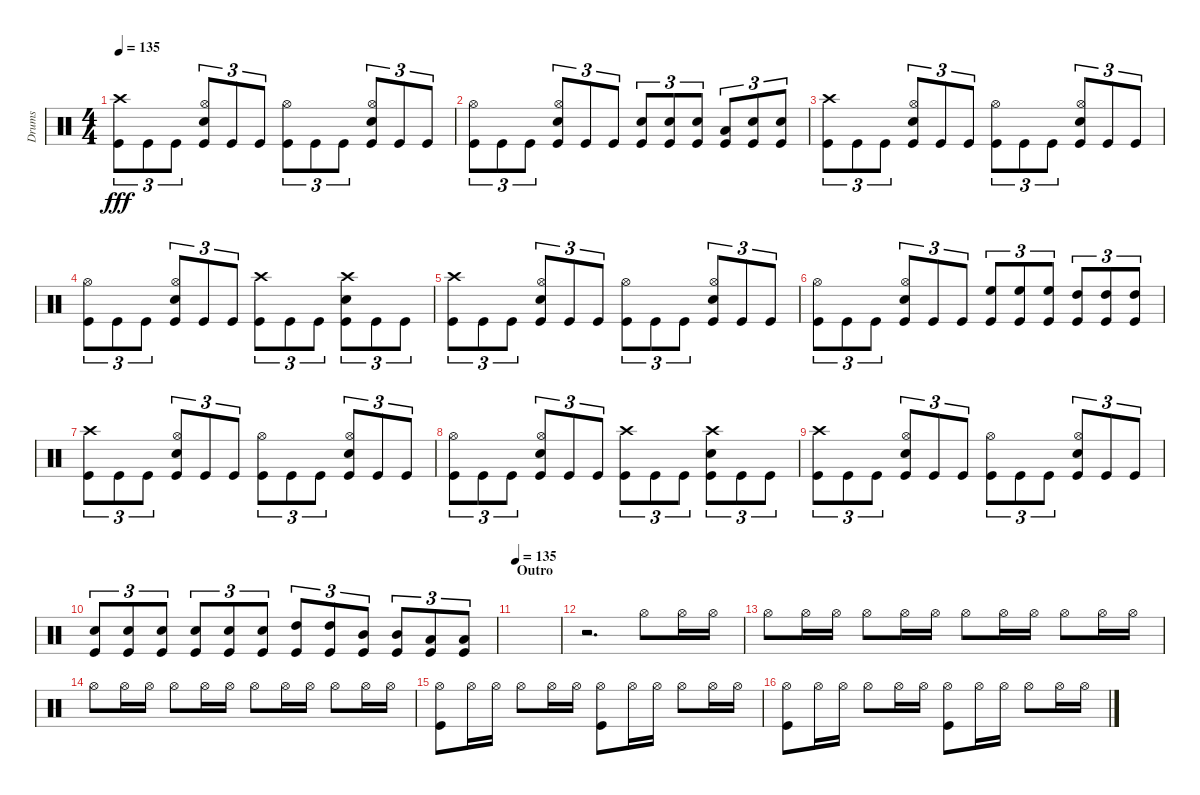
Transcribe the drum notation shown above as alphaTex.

\track ("Drums" "Drums") {instrument percussion}
\staff {score}
\articulation defaults
\ts (4 4)
\tempo 135
\clef neutral
\ks c
("Crash high (hit)" "Kick (hit)").8{tu (3 2) dy fff} "Kick (hit)".8{tu (3 2)} "Kick (hit)".8{tu (3 2)} ("Hi-Hat (open)" "Snare (hit) 2" "Kick (hit)").8{tu (3 2)} "Kick (hit)".8{tu (3 2)} "Kick (hit)".8{tu (3 2)} ("Hi-Hat (open)" "Kick (hit)").8{tu (3 2)} "Kick (hit)".8{tu (3 2)} "Kick (hit)".8{tu (3 2)} ("Hi-Hat (open)" "Snare (hit) 2" "Kick (hit)").8{tu (3 2)} "Kick (hit)".8{tu (3 2)} "Kick (hit)".8{tu (3 2)} |
("Hi-Hat (open)" "Kick (hit)").8{tu (3 2)} "Kick (hit)".8{tu (3 2)} "Kick (hit)".8{tu (3 2)} ("Hi-Hat (open)" "Snare (hit) 2" "Kick (hit)").8{tu (3 2)} "Kick (hit)".8{tu (3 2)} "Kick (hit)".8{tu (3 2)} ("Snare (hit) 2" "Kick (hit)").8{tu (3 2)} ("Snare (hit) 2" "Kick (hit)").8{tu (3 2)} ("Snare (hit) 2" "Kick (hit)").8{tu (3 2)} ("Low Tom (hit)" "Kick (hit)").8{tu (3 2)} ("Snare (hit) 2" "Kick (hit)").8{tu (3 2)} ("Snare (hit) 2" "Kick (hit)").8{tu (3 2)} |
("Crash high (hit)" "Kick (hit)").8{tu (3 2)} "Kick (hit)".8{tu (3 2)} "Kick (hit)".8{tu (3 2)} ("Hi-Hat (open)" "Snare (hit) 2" "Kick (hit)").8{tu (3 2)} "Kick (hit)".8{tu (3 2)} "Kick (hit)".8{tu (3 2)} ("Hi-Hat (open)" "Kick (hit)").8{tu (3 2)} "Kick (hit)".8{tu (3 2)} "Kick (hit)".8{tu (3 2)} ("Hi-Hat (open)" "Snare (hit) 2" "Kick (hit)").8{tu (3 2)} "Kick (hit)".8{tu (3 2)} "Kick (hit)".8{tu (3 2)} |
("Hi-Hat (open)" "Kick (hit)").8{tu (3 2)} "Kick (hit)".8{tu (3 2)} "Kick (hit)".8{tu (3 2)} ("Hi-Hat (open)" "Snare (hit) 2" "Kick (hit)").8{tu (3 2)} "Kick (hit)".8{tu (3 2)} "Kick (hit)".8{tu (3 2)} ("Crash high (hit)" "Kick (hit)").8{tu (3 2)} "Kick (hit)".8{tu (3 2)} "Kick (hit)".8{tu (3 2)} ("Snare (hit) 2" "Crash high (hit)" "Kick (hit)").8{tu (3 2)} "Kick (hit)".8{tu (3 2)} "Kick (hit)".8{tu (3 2)} |
("Crash high (hit)" "Kick (hit)").8{tu (3 2)} "Kick (hit)".8{tu (3 2)} "Kick (hit)".8{tu (3 2)} ("Hi-Hat (open)" "Snare (hit) 2" "Kick (hit)").8{tu (3 2)} "Kick (hit)".8{tu (3 2)} "Kick (hit)".8{tu (3 2)} ("Hi-Hat (open)" "Kick (hit)").8{tu (3 2)} "Kick (hit)".8{tu (3 2)} "Kick (hit)".8{tu (3 2)} ("Hi-Hat (open)" "Snare (hit) 2" "Kick (hit)").8{tu (3 2)} "Kick (hit)".8{tu (3 2)} "Kick (hit)".8{tu (3 2)} |
("Hi-Hat (open)" "Kick (hit)").8{tu (3 2)} "Kick (hit)".8{tu (3 2)} "Kick (hit)".8{tu (3 2)} ("Hi-Hat (open)" "Snare (hit) 2" "Kick (hit)").8{tu (3 2)} "Kick (hit)".8{tu (3 2)} "Kick (hit)".8{tu (3 2)} ("High Floor Tom (hit)" "Kick (hit)").8{tu (3 2)} ("High Floor Tom (hit)" "Kick (hit)").8{tu (3 2)} ("High Floor Tom (hit)" "Kick (hit)").8{tu (3 2)} ("High Tom (hit)" "Kick (hit)").8{tu (3 2)} ("High Tom (hit)" "Kick (hit)").8{tu (3 2)} ("High Tom (hit)" "Kick (hit)").8{tu (3 2)} |
("Crash high (hit)" "Kick (hit)").8{tu (3 2)} "Kick (hit)".8{tu (3 2)} "Kick (hit)".8{tu (3 2)} ("Hi-Hat (open)" "Snare (hit) 2" "Kick (hit)").8{tu (3 2)} "Kick (hit)".8{tu (3 2)} "Kick (hit)".8{tu (3 2)} ("Hi-Hat (open)" "Kick (hit)").8{tu (3 2)} "Kick (hit)".8{tu (3 2)} "Kick (hit)".8{tu (3 2)} ("Hi-Hat (open)" "Snare (hit) 2" "Kick (hit)").8{tu (3 2)} "Kick (hit)".8{tu (3 2)} "Kick (hit)".8{tu (3 2)} |
("Hi-Hat (open)" "Kick (hit)").8{tu (3 2)} "Kick (hit)".8{tu (3 2)} "Kick (hit)".8{tu (3 2)} ("Hi-Hat (open)" "Snare (hit) 2" "Kick (hit)").8{tu (3 2)} "Kick (hit)".8{tu (3 2)} "Kick (hit)".8{tu (3 2)} ("Crash high (hit)" "Kick (hit)").8{tu (3 2)} "Kick (hit)".8{tu (3 2)} "Kick (hit)".8{tu (3 2)} ("Snare (hit) 2" "Crash high (hit)" "Kick (hit)").8{tu (3 2)} "Kick (hit)".8{tu (3 2)} "Kick (hit)".8{tu (3 2)} |
("Crash high (hit)" "Kick (hit)").8{tu (3 2)} "Kick (hit)".8{tu (3 2)} "Kick (hit)".8{tu (3 2)} ("Hi-Hat (open)" "Snare (hit) 2" "Kick (hit)").8{tu (3 2)} "Kick (hit)".8{tu (3 2)} "Kick (hit)".8{tu (3 2)} ("Hi-Hat (open)" "Kick (hit)").8{tu (3 2)} "Kick (hit)".8{tu (3 2)} "Kick (hit)".8{tu (3 2)} ("Hi-Hat (open)" "Snare (hit) 2" "Kick (hit)").8{tu (3 2)} "Kick (hit)".8{tu (3 2)} "Kick (hit)".8{tu (3 2)} |
("Snare (hit) 2" "Kick (hit)").8{tu (3 2)} ("Snare (hit) 2" "Kick (hit)").8{tu (3 2)} ("Snare (hit) 2" "Kick (hit)").8{tu (3 2)} ("Snare (hit) 2" "Kick (hit)").8{tu (3 2)} ("Snare (hit) 2" "Kick (hit)").8{tu (3 2)} ("Snare (hit) 2" "Kick (hit)").8{tu (3 2)} ("High Tom (hit)" "Kick (hit)").8{tu (3 2)} ("High Tom (hit)" "Kick (hit)").8{tu (3 2)} ("Mid Tom (hit)" "Kick (hit)").8{tu (3 2)} ("Mid Tom (hit)" "Kick (hit)").8{tu (3 2)} ("Low Tom (hit)" "Kick (hit)").8{tu (3 2)} ("Low Tom (hit)" "Kick (hit)").8{tu (3 2)} |
\section ("" "Outro")
\tempo 135
|
r.2{d} "Hi-Hat (open)".8 "Hi-Hat (open)".16 "Hi-Hat (open)".16 |
"Hi-Hat (open)".8 "Hi-Hat (open)".16 "Hi-Hat (open)".16 "Hi-Hat (open)".8 "Hi-Hat (open)".16 "Hi-Hat (open)".16 "Hi-Hat (open)".8 "Hi-Hat (open)".16 "Hi-Hat (open)".16 "Hi-Hat (open)".8 "Hi-Hat (open)".16 "Hi-Hat (open)".16 |
"Hi-Hat (open)".8 "Hi-Hat (open)".16 "Hi-Hat (open)".16 "Hi-Hat (open)".8 "Hi-Hat (open)".16 "Hi-Hat (open)".16 "Hi-Hat (open)".8 "Hi-Hat (open)".16 "Hi-Hat (open)".16 "Hi-Hat (open)".8 "Hi-Hat (open)".16 "Hi-Hat (open)".16 |
("Hi-Hat (open)" "Kick (hit)").8 "Hi-Hat (open)".16 "Hi-Hat (open)".16 "Hi-Hat (open)".8 "Hi-Hat (open)".16 "Hi-Hat (open)".16 ("Hi-Hat (open)" "Kick (hit)").8 "Hi-Hat (open)".16 "Hi-Hat (open)".16 "Hi-Hat (open)".8 "Hi-Hat (open)".16 "Hi-Hat (open)".16 |
("Hi-Hat (open)" "Kick (hit)").8 "Hi-Hat (open)".16 "Hi-Hat (open)".16 "Hi-Hat (open)".8 "Hi-Hat (open)".16 "Hi-Hat (open)".16 ("Hi-Hat (open)" "Kick (hit)").8 "Hi-Hat (open)".16 "Hi-Hat (open)".16 "Hi-Hat (open)".8 "Hi-Hat (open)".16 "Hi-Hat (open)".16
